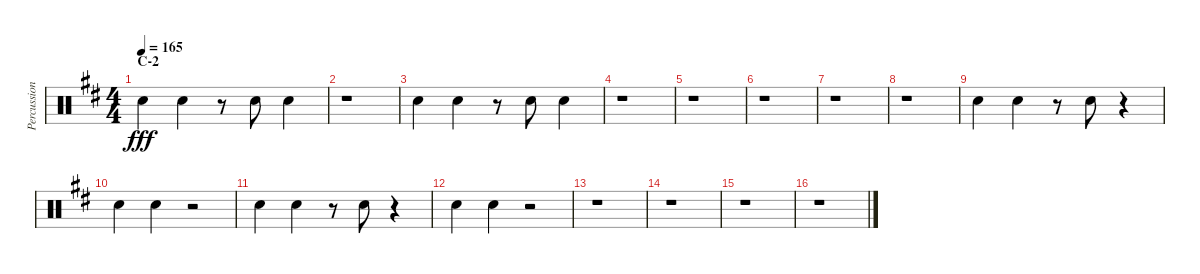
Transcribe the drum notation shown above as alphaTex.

\track ("Percussion" "Percussion") {instrument percussion}
\staff {score}
\articulation defaults
\ts (4 4)
\section ("" "C-2")
\tempo 165
\clef neutral
\ks d "Hand Clap (hit)".4{dy fff} "Hand Clap (hit)".4
r.8 "Hand Clap (hit)".8 "Hand Clap (hit)".4 |
r.1 |
"Hand Clap (hit)".4 "Hand Clap (hit)".4 r.8 "Hand Clap (hit)".8 "Hand Clap (hit)".4 |
r.1 |
r.1 |
r.1 |
r.1 |
r.1 |
"Hand Clap (hit)".4 "Hand Clap (hit)".4 r.8 "Hand Clap (hit)".8 r.4 |
"Hand Clap (hit)".4 "Hand Clap (hit)".4 r.2 |
"Hand Clap (hit)".4 "Hand Clap (hit)".4 r.8 "Hand Clap (hit)".8 r.4 |
"Hand Clap (hit)".4 "Hand Clap (hit)".4 r.2 |
r.1 |
r.1 |
r.1 |
r.1
